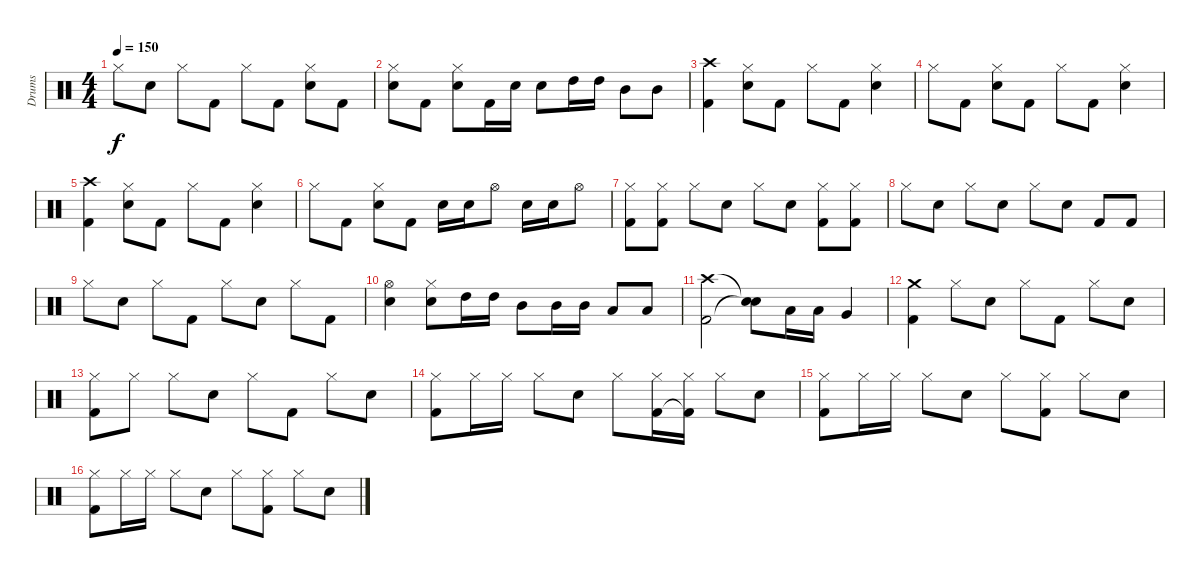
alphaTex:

\track ("Drums" "Drums") {instrument percussion}
\staff {score}
\articulation defaults
\ts (4 4)
\tempo 150
\clef neutral
\ks c "Hi-Hat (closed)".8{dy f} "Electric Snare (hit)".8 "Hi-Hat (closed)".8 "Kick (hit) 2".8 "Hi-Hat (closed)".8 "Kick (hit) 2".8
("Hi-Hat (closed)" "Electric Snare (hit)").8 "Kick (hit) 2".8 |
("Hi-Hat (closed)" "Electric Snare (hit)").8 "Kick (hit) 2".8 ("Hi-Hat (closed)" "Electric Snare (hit)").8 "Kick (hit) 2".16 "Electric Snare (hit)".16 "Electric Snare (hit)".8 "High Tom (hit)".16 "High Tom (hit)".16 "Mid Tom (hit)".8 "Mid Tom (hit)".8 |
("Crash high (hit)" "Kick (hit) 2").4 ("Hi-Hat (closed)" "Electric Snare (hit)").8 "Kick (hit) 2".8 "Hi-Hat (closed)".8 "Kick (hit) 2".8 ("Hi-Hat (closed)" "Electric Snare (hit)").4 |
"Hi-Hat (closed)".8 "Kick (hit) 2".8 ("Hi-Hat (closed)" "Electric Snare (hit)").8 "Kick (hit) 2".8 "Hi-Hat (closed)".8 "Kick (hit) 2".8 ("Hi-Hat (closed)" "Electric Snare (hit)").4 |
("Crash high (hit)" "Kick (hit) 2").4 ("Hi-Hat (closed)" "Electric Snare (hit)").8 "Kick (hit) 2".8 "Hi-Hat (closed)".8 "Kick (hit) 2".8 ("Hi-Hat (closed)" "Electric Snare (hit)").4 |
"Hi-Hat (closed)".8 "Kick (hit) 2".8 ("Hi-Hat (closed)" "Electric Snare (hit)").8 "Kick (hit) 2".8 "Electric Snare (hit)".16 "Electric Snare (hit)".16 "Hi-Hat (open)".8 "Electric Snare (hit)".16 "Electric Snare (hit)".16 "Hi-Hat (open)".8 |
("Hi-Hat (closed)" "Kick (hit) 2").8 ("Hi-Hat (closed)" "Kick (hit) 2").8 "Hi-Hat (closed)".8 "Electric Snare (hit)".8 "Hi-Hat (closed)".8 "Electric Snare (hit)".8 ("Hi-Hat (closed)" "Kick (hit) 2").8 ("Hi-Hat (closed)" "Kick (hit) 2").8 |
"Hi-Hat (closed)".8 "Electric Snare (hit)".8 "Hi-Hat (closed)".8 "Electric Snare (hit)".8 "Hi-Hat (closed)".8 "Electric Snare (hit)".8 "Kick (hit) 2".8 "Kick (hit) 2".8 |
"Hi-Hat (closed)".8 "Electric Snare (hit)".8 "Hi-Hat (closed)".8 "Kick (hit) 2".8 "Hi-Hat (closed)".8 "Electric Snare (hit)".8 "Hi-Hat (closed)".8 "Kick (hit) 2".8 |
("Hi-Hat (open)" "Electric Snare (hit)").4 ("Electric Snare (hit)" "Hi-Hat (closed)").8 "High Tom (hit)".16 "High Tom (hit)".16 "Mid Tom (hit)".8 "Mid Tom (hit)".16 "Mid Tom (hit)".16 "Low Tom (hit)".8 "Low Tom (hit)".8 |
("Crash high (hit)" "Kick (hit) 2").2 ("Snare (hit)"{t} "Snare (hit)"{t}).8 "Low Tom (hit)".16 "Low Tom (hit)".16 "Very Low Tom (hit)".4 |
("Crash medium (hit)" "Kick (hit) 2").4 "Hi-Hat (closed)".8 "Electric Snare (hit)".8 "Hi-Hat (closed)".8 "Kick (hit) 2".8 "Hi-Hat (closed)".8 "Electric Snare (hit)".8 |
("Hi-Hat (closed)" "Kick (hit) 2").8 "Hi-Hat (closed)".8 "Hi-Hat (closed)".8 "Electric Snare (hit)".8 "Hi-Hat (closed)".8 "Kick (hit) 2".8 "Hi-Hat (closed)".8 "Electric Snare (hit)".8 |
("Hi-Hat (closed)" "Kick (hit) 2").8 "Hi-Hat (closed)".16 "Hi-Hat (closed)".16 "Hi-Hat (closed)".8 "Electric Snare (hit)".8 "Hi-Hat (closed)".8 ("Hi-Hat (closed)" "Kick (hit) 2").16 ("Hi-Hat (closed)" "Kick (hit) 2"{t}).16 "Hi-Hat (closed)".8 "Electric Snare (hit)".8 |
("Hi-Hat (closed)" "Kick (hit) 2").8 "Hi-Hat (closed)".16 "Hi-Hat (closed)".16 "Hi-Hat (closed)".8 "Electric Snare (hit)".8 "Hi-Hat (closed)".8 ("Hi-Hat (closed)" "Kick (hit) 2").8 "Hi-Hat (closed)".8 "Electric Snare (hit)".8 |
("Hi-Hat (closed)" "Kick (hit) 2").8 "Hi-Hat (closed)".16 "Hi-Hat (closed)".16 "Hi-Hat (closed)".8 "Electric Snare (hit)".8 "Hi-Hat (closed)".8 ("Hi-Hat (closed)" "Kick (hit) 2").8 "Hi-Hat (closed)".8 "Electric Snare (hit)".8
